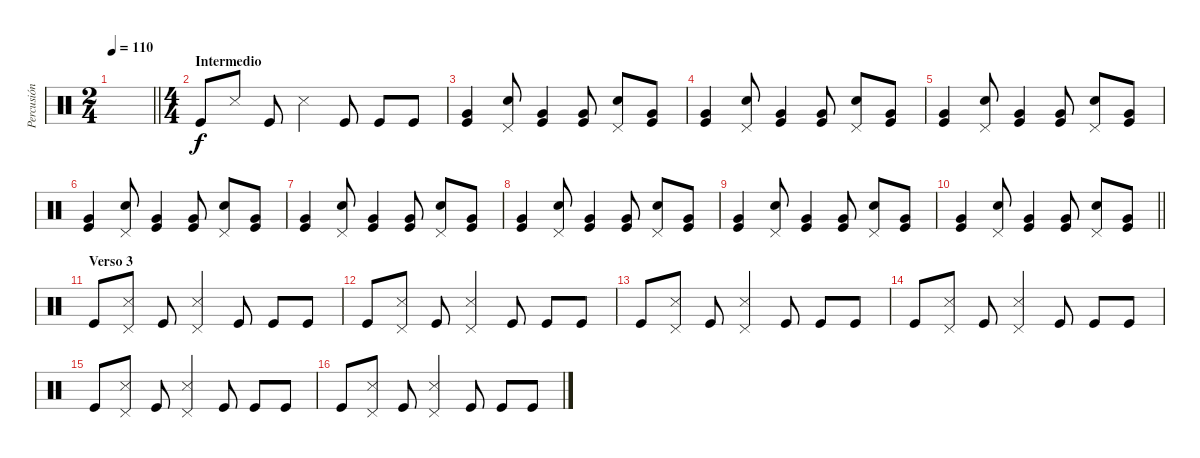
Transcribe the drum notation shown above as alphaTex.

\track ("Percusión" "Percusión") {instrument percussion}
\staff {score}
\articulation defaults
\ts (2 4)
\tempo 110
\clef neutral
\barLineRight lightlight
\ks c
|
\ts (4 4)
\section ("" "Intermedio")
"Kick (hit)".8 "Metronome (hit)".8 "Kick (hit)".8 "Metronome (hit)".4 "Kick (hit)".8 "Kick (hit)".8 "Kick (hit)".8 |
("Very Low Tom (hit)" "Kick (hit)").4 ("Electric Snare (hit)" "Pedal Hi-Hat (hit)").8 ("Very Low Tom (hit)" "Kick (hit)").4 ("Very Low Tom (hit)" "Kick (hit)").8 ("Electric Snare (hit)" "Pedal Hi-Hat (hit)").8 ("Very Low Tom (hit)" "Kick (hit)").8 |
("Very Low Tom (hit)" "Kick (hit)").4 ("Electric Snare (hit)" "Pedal Hi-Hat (hit)").8 ("Very Low Tom (hit)" "Kick (hit)").4 ("Very Low Tom (hit)" "Kick (hit)").8 ("Electric Snare (hit)" "Pedal Hi-Hat (hit)").8 ("Very Low Tom (hit)" "Kick (hit)").8 |
("Very Low Tom (hit)" "Kick (hit)").4 ("Electric Snare (hit)" "Pedal Hi-Hat (hit)").8 ("Very Low Tom (hit)" "Kick (hit)").4 ("Very Low Tom (hit)" "Kick (hit)").8 ("Electric Snare (hit)" "Pedal Hi-Hat (hit)").8 ("Very Low Tom (hit)" "Kick (hit)").8 |
("Very Low Tom (hit)" "Kick (hit)").4 ("Electric Snare (hit)" "Pedal Hi-Hat (hit)").8 ("Very Low Tom (hit)" "Kick (hit)").4 ("Very Low Tom (hit)" "Kick (hit)").8 ("Electric Snare (hit)" "Pedal Hi-Hat (hit)").8 ("Very Low Tom (hit)" "Kick (hit)").8 |
("Very Low Tom (hit)" "Kick (hit)").4 ("Electric Snare (hit)" "Pedal Hi-Hat (hit)").8 ("Very Low Tom (hit)" "Kick (hit)").4 ("Very Low Tom (hit)" "Kick (hit)").8 ("Electric Snare (hit)" "Pedal Hi-Hat (hit)").8 ("Very Low Tom (hit)" "Kick (hit)").8 |
("Very Low Tom (hit)" "Kick (hit)").4 ("Electric Snare (hit)" "Pedal Hi-Hat (hit)").8 ("Very Low Tom (hit)" "Kick (hit)").4 ("Very Low Tom (hit)" "Kick (hit)").8 ("Electric Snare (hit)" "Pedal Hi-Hat (hit)").8 ("Very Low Tom (hit)" "Kick (hit)").8 |
("Very Low Tom (hit)" "Kick (hit)").4 ("Electric Snare (hit)" "Pedal Hi-Hat (hit)").8 ("Very Low Tom (hit)" "Kick (hit)").4 ("Very Low Tom (hit)" "Kick (hit)").8 ("Electric Snare (hit)" "Pedal Hi-Hat (hit)").8 ("Very Low Tom (hit)" "Kick (hit)").8 |
\barLineRight lightlight
("Very Low Tom (hit)" "Kick (hit)").4 ("Electric Snare (hit)" "Pedal Hi-Hat (hit)").8 ("Very Low Tom (hit)" "Kick (hit)").4 ("Very Low Tom (hit)" "Kick (hit)").8 ("Electric Snare (hit)" "Pedal Hi-Hat (hit)").8 ("Very Low Tom (hit)" "Kick (hit)").8 |
\section ("" "Verso 3")
"Kick (hit)".8 ("Metronome (hit)" "Pedal Hi-Hat (hit)").8 "Kick (hit)".8 ("Metronome (hit)" "Pedal Hi-Hat (hit)").4 "Kick (hit)".8 "Kick (hit)".8 "Kick (hit)".8 |
"Kick (hit)".8 ("Metronome (hit)" "Pedal Hi-Hat (hit)").8 "Kick (hit)".8 ("Metronome (hit)" "Pedal Hi-Hat (hit)").4 "Kick (hit)".8 "Kick (hit)".8 "Kick (hit)".8 |
"Kick (hit)".8 ("Metronome (hit)" "Pedal Hi-Hat (hit)").8 "Kick (hit)".8 ("Metronome (hit)" "Pedal Hi-Hat (hit)").4 "Kick (hit)".8 "Kick (hit)".8 "Kick (hit)".8 |
"Kick (hit)".8 ("Metronome (hit)" "Pedal Hi-Hat (hit)").8 "Kick (hit)".8 ("Metronome (hit)" "Pedal Hi-Hat (hit)").4 "Kick (hit)".8 "Kick (hit)".8 "Kick (hit)".8 |
"Kick (hit)".8 ("Metronome (hit)" "Pedal Hi-Hat (hit)").8 "Kick (hit)".8 ("Metronome (hit)" "Pedal Hi-Hat (hit)").4 "Kick (hit)".8 "Kick (hit)".8 "Kick (hit)".8 |
"Kick (hit)".8 ("Metronome (hit)" "Pedal Hi-Hat (hit)").8 "Kick (hit)".8 ("Metronome (hit)" "Pedal Hi-Hat (hit)").4 "Kick (hit)".8 "Kick (hit)".8 "Kick (hit)".8
